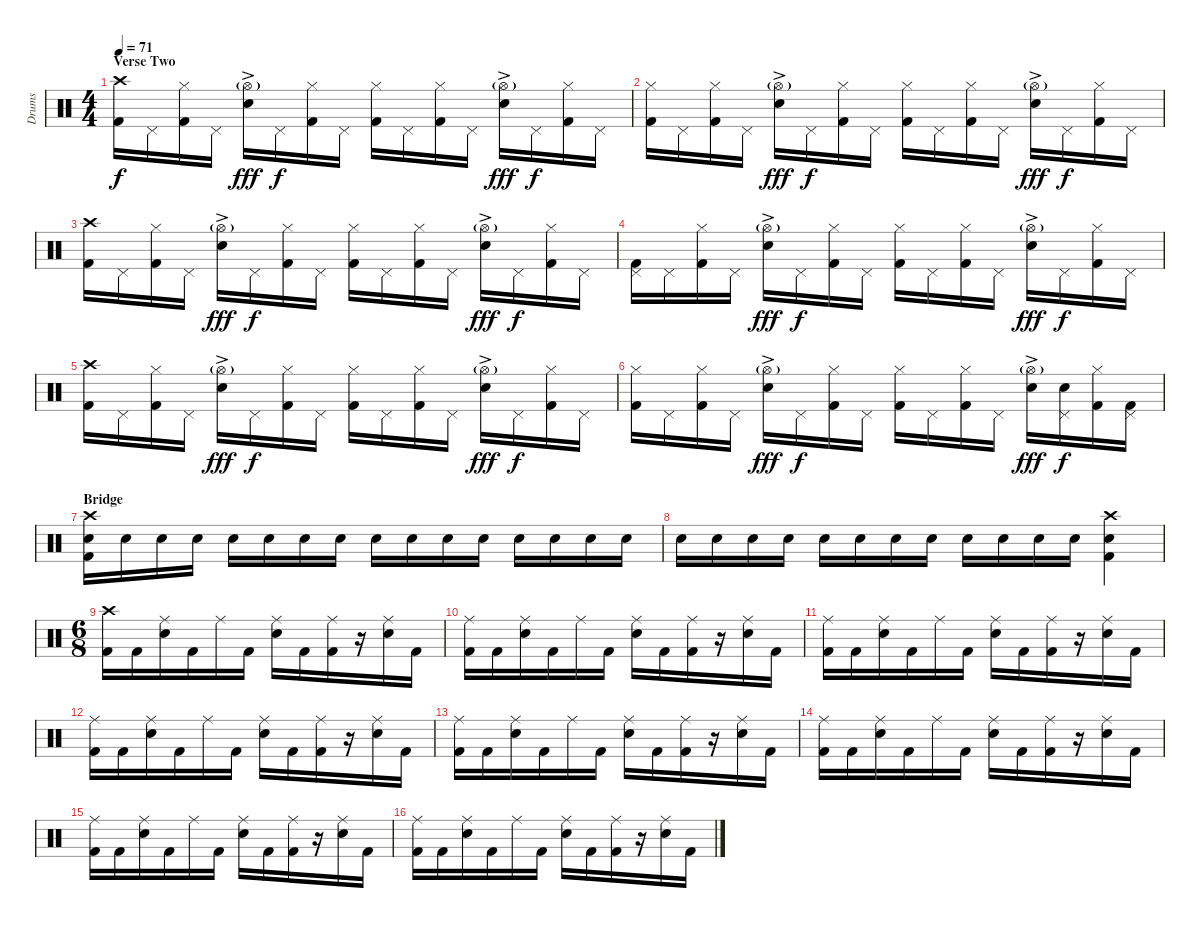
\track ("Drums" "Drums") {instrument percussion}
\staff {score}
\articulation defaults
\ts (4 4)
\section ("" "Verse Two")
\tempo 71
\clef neutral
\ks c
("Crash high (hit)" "Kick (hit) 2").16{dy f volume 12} "Pedal Hi-Hat (hit)".16 ("Hi-Hat (closed)" "Kick (hit) 2").16 "Pedal Hi-Hat (hit)".16 ("Hi-Hat (open)"{g} "Snare (hit) 2"{ac}).16{dy fff} "Pedal Hi-Hat (hit)".16{dy f} ("Hi-Hat (closed)" "Kick (hit) 2").16 "Pedal Hi-Hat (hit)".16 ("Hi-Hat (closed)" "Kick (hit) 2").16 "Pedal Hi-Hat (hit)".16 ("Hi-Hat (closed)" "Kick (hit) 2").16 "Pedal Hi-Hat (hit)".16 ("Hi-Hat (open)"{g} "Snare (hit) 2"{ac}).16{dy fff} "Pedal Hi-Hat (hit)".16{dy f} ("Hi-Hat (closed)" "Kick (hit) 2").16 "Pedal Hi-Hat (hit)".16 |
("Hi-Hat (closed)" "Kick (hit) 2").16 "Pedal Hi-Hat (hit)".16 ("Hi-Hat (closed)" "Kick (hit) 2").16 "Pedal Hi-Hat (hit)".16 ("Hi-Hat (open)"{g} "Snare (hit) 2"{ac}).16{dy fff} "Pedal Hi-Hat (hit)".16{dy f} ("Hi-Hat (closed)" "Kick (hit) 2").16 "Pedal Hi-Hat (hit)".16 ("Hi-Hat (closed)" "Kick (hit) 2").16 "Pedal Hi-Hat (hit)".16 ("Hi-Hat (closed)" "Kick (hit) 2").16 "Pedal Hi-Hat (hit)".16 ("Hi-Hat (open)"{g} "Snare (hit) 2"{ac}).16{dy fff} "Pedal Hi-Hat (hit)".16{dy f} ("Hi-Hat (closed)" "Kick (hit) 2").16 "Pedal Hi-Hat (hit)".16 |
("Crash high (hit)" "Kick (hit) 2").16 "Pedal Hi-Hat (hit)".16 ("Hi-Hat (closed)" "Kick (hit) 2").16 "Pedal Hi-Hat (hit)".16 ("Hi-Hat (open)"{g} "Snare (hit) 2"{ac}).16{dy fff} "Pedal Hi-Hat (hit)".16{dy f} ("Hi-Hat (closed)" "Kick (hit) 2").16 "Pedal Hi-Hat (hit)".16 ("Hi-Hat (closed)" "Kick (hit) 2").16 "Pedal Hi-Hat (hit)".16 ("Hi-Hat (closed)" "Kick (hit) 2").16 "Pedal Hi-Hat (hit)".16 ("Hi-Hat (open)"{g} "Snare (hit) 2"{ac}).16{dy fff} "Pedal Hi-Hat (hit)".16{dy f} ("Hi-Hat (closed)" "Kick (hit) 2").16 "Pedal Hi-Hat (hit)".16 |
("Pedal Hi-Hat (hit)" "Kick (hit) 2").16 "Pedal Hi-Hat (hit)".16 ("Hi-Hat (closed)" "Kick (hit) 2").16 "Pedal Hi-Hat (hit)".16 ("Hi-Hat (open)"{g} "Snare (hit) 2"{ac}).16{dy fff} "Pedal Hi-Hat (hit)".16{dy f} ("Hi-Hat (closed)" "Kick (hit) 2").16 "Pedal Hi-Hat (hit)".16 ("Hi-Hat (closed)" "Kick (hit) 2").16 "Pedal Hi-Hat (hit)".16 ("Hi-Hat (closed)" "Kick (hit) 2").16 "Pedal Hi-Hat (hit)".16 ("Hi-Hat (open)"{g} "Snare (hit) 2"{ac}).16{dy fff} "Pedal Hi-Hat (hit)".16{dy f} ("Hi-Hat (closed)" "Kick (hit) 2").16 "Pedal Hi-Hat (hit)".16 |
("Crash high (hit)" "Kick (hit) 2").16 "Pedal Hi-Hat (hit)".16 ("Hi-Hat (closed)" "Kick (hit) 2").16 "Pedal Hi-Hat (hit)".16 ("Hi-Hat (open)"{g} "Snare (hit) 2"{ac}).16{dy fff} "Pedal Hi-Hat (hit)".16{dy f} ("Hi-Hat (closed)" "Kick (hit) 2").16 "Pedal Hi-Hat (hit)".16 ("Hi-Hat (closed)" "Kick (hit) 2").16 "Pedal Hi-Hat (hit)".16 ("Hi-Hat (closed)" "Kick (hit) 2").16 "Pedal Hi-Hat (hit)".16 ("Hi-Hat (open)"{g} "Snare (hit) 2"{ac}).16{dy fff} "Pedal Hi-Hat (hit)".16{dy f} ("Hi-Hat (closed)" "Kick (hit) 2").16 "Pedal Hi-Hat (hit)".16 |
("Hi-Hat (closed)" "Kick (hit) 2").16 "Pedal Hi-Hat (hit)".16 ("Hi-Hat (closed)" "Kick (hit) 2").16 "Pedal Hi-Hat (hit)".16 ("Hi-Hat (open)"{g} "Snare (hit) 2"{ac}).16{dy fff} "Pedal Hi-Hat (hit)".16{dy f} ("Hi-Hat (closed)" "Kick (hit) 2").16 "Pedal Hi-Hat (hit)".16 ("Hi-Hat (closed)" "Kick (hit) 2").16 "Pedal Hi-Hat (hit)".16 ("Hi-Hat (closed)" "Kick (hit) 2").16 "Pedal Hi-Hat (hit)".16 ("Hi-Hat (open)"{g} "Snare (hit) 2"{ac}).16{dy fff} ("Pedal Hi-Hat (hit)" "Snare (hit) 2").16{dy f} ("Hi-Hat (closed)" "Kick (hit) 2").16 ("Pedal Hi-Hat (hit)" "Kick (hit) 2").16 |
\section ("" "Bridge")
("Crash high (hit)" "Electric Snare (hit)" "Kick (hit) 2").16 "Electric Snare (hit)".16 "Electric Snare (hit)".16 "Electric Snare (hit)".16 "Electric Snare (hit)".16 "Electric Snare (hit)".16 "Electric Snare (hit)".16 "Electric Snare (hit)".16 "Electric Snare (hit)".16 "Electric Snare (hit)".16 "Electric Snare (hit)".16 "Electric Snare (hit)".16 "Electric Snare (hit)".16 "Electric Snare (hit)".16 "Electric Snare (hit)".16 "Electric Snare (hit)".16 |
"Electric Snare (hit)".16 "Electric Snare (hit)".16 "Electric Snare (hit)".16 "Electric Snare (hit)".16 "Electric Snare (hit)".16 "Electric Snare (hit)".16 "Electric Snare (hit)".16 "Electric Snare (hit)".16 "Electric Snare (hit)".16 "Electric Snare (hit)".16 "Electric Snare (hit)".16 "Electric Snare (hit)".16 ("Crash high (hit)" "Electric Snare (hit)" "Kick (hit) 2").4 |
\ts (6 8)
("Crash high (hit)" "Kick (hit) 2").16 "Kick (hit) 2".16 ("Ride (middle)" "Electric Snare (hit)").16 "Kick (hit) 2".16 "Ride (middle)".16 "Kick (hit) 2".16 ("Ride (middle)" "Electric Snare (hit)").16 "Kick (hit) 2".16 ("Ride (middle)" "Kick (hit) 2").16 r.16 ("Ride (middle)" "Electric Snare (hit)").16 "Kick (hit) 2".16 |
("Ride (middle)" "Kick (hit) 2").16 "Kick (hit) 2".16 ("Ride (middle)" "Electric Snare (hit)").16 "Kick (hit) 2".16 "Ride (middle)".16 "Kick (hit) 2".16 ("Ride (middle)" "Electric Snare (hit)").16 "Kick (hit) 2".16 ("Ride (middle)" "Kick (hit) 2").16 r.16 ("Ride (middle)" "Electric Snare (hit)").16 "Kick (hit) 2".16 |
("Ride (middle)" "Kick (hit) 2").16 "Kick (hit) 2".16 ("Ride (middle)" "Electric Snare (hit)").16 "Kick (hit) 2".16 "Ride (middle)".16 "Kick (hit) 2".16 ("Ride (middle)" "Electric Snare (hit)").16 "Kick (hit) 2".16 ("Ride (middle)" "Kick (hit) 2").16 r.16 ("Ride (middle)" "Electric Snare (hit)").16 "Kick (hit) 2".16 |
("Ride (middle)" "Kick (hit) 2").16 "Kick (hit) 2".16 ("Ride (middle)" "Electric Snare (hit)").16 "Kick (hit) 2".16 "Ride (middle)".16 "Kick (hit) 2".16 ("Ride (middle)" "Electric Snare (hit)").16 "Kick (hit) 2".16 ("Ride (middle)" "Kick (hit) 2").16 r.16 ("Ride (middle)" "Electric Snare (hit)").16 "Kick (hit) 2".16 |
("Ride (middle)" "Kick (hit) 2").16 "Kick (hit) 2".16 ("Ride (middle)" "Electric Snare (hit)").16 "Kick (hit) 2".16 "Ride (middle)".16 "Kick (hit) 2".16 ("Ride (middle)" "Electric Snare (hit)").16 "Kick (hit) 2".16 ("Ride (middle)" "Kick (hit) 2").16 r.16 ("Ride (middle)" "Electric Snare (hit)").16 "Kick (hit) 2".16 |
("Ride (middle)" "Kick (hit) 2").16 "Kick (hit) 2".16 ("Ride (middle)" "Electric Snare (hit)").16 "Kick (hit) 2".16 "Ride (middle)".16 "Kick (hit) 2".16 ("Ride (middle)" "Electric Snare (hit)").16 "Kick (hit) 2".16 ("Ride (middle)" "Kick (hit) 2").16 r.16 ("Ride (middle)" "Electric Snare (hit)").16 "Kick (hit) 2".16 |
("Ride (middle)" "Kick (hit) 2").16 "Kick (hit) 2".16 ("Ride (middle)" "Electric Snare (hit)").16 "Kick (hit) 2".16 "Ride (middle)".16 "Kick (hit) 2".16 ("Ride (middle)" "Electric Snare (hit)").16 "Kick (hit) 2".16 ("Ride (middle)" "Kick (hit) 2").16 r.16 ("Ride (middle)" "Electric Snare (hit)").16 "Kick (hit) 2".16 |
("Ride (middle)" "Kick (hit) 2").16 "Kick (hit) 2".16 ("Ride (middle)" "Electric Snare (hit)").16 "Kick (hit) 2".16 "Ride (middle)".16 "Kick (hit) 2".16 ("Ride (middle)" "Electric Snare (hit)").16 "Kick (hit) 2".16 ("Ride (middle)" "Kick (hit) 2").16 r.16 ("Ride (middle)" "Electric Snare (hit)").16 "Kick (hit) 2".16
